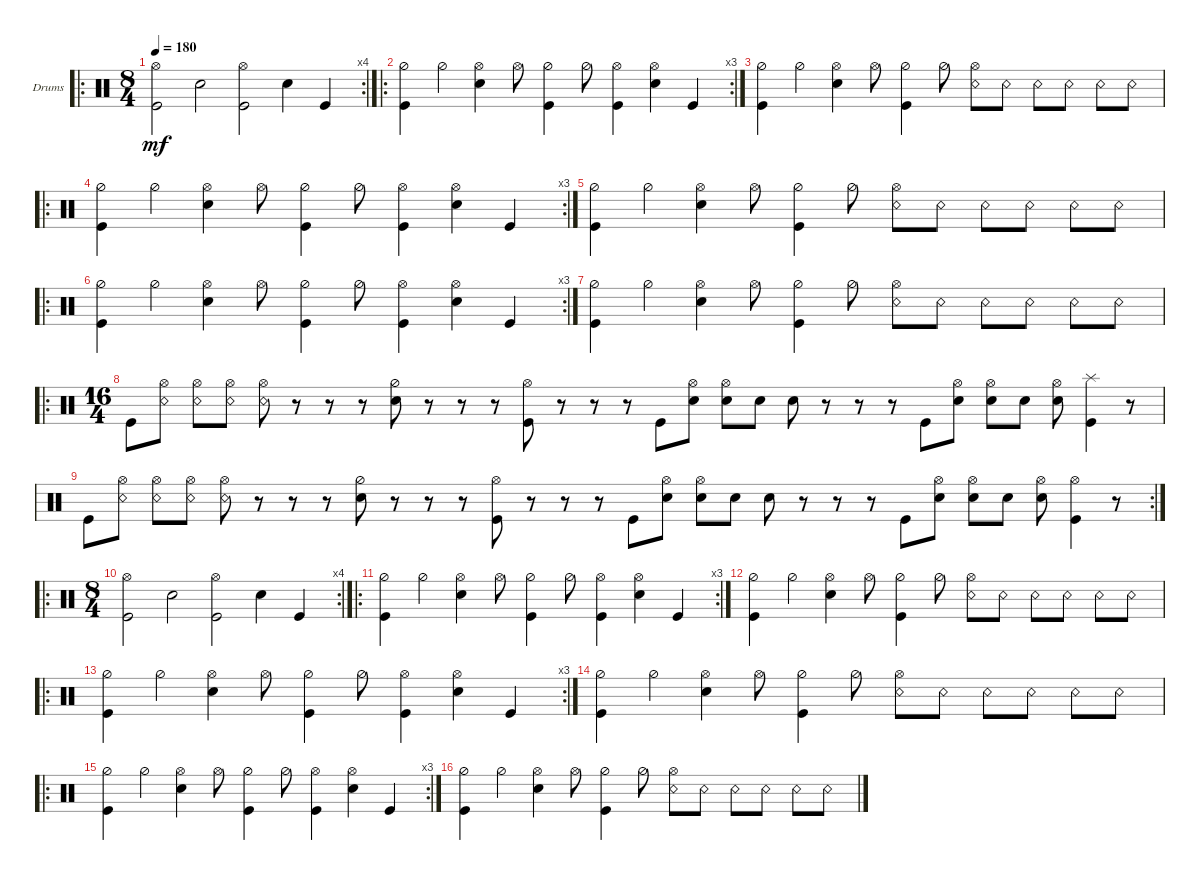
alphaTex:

\bracketExtendMode groupsimilarinstruments
\firstSystemTrackNameOrientation horizontal
\otherSystemsTrackNameOrientation horizontal
\track ("Drumkit" "Drums") {instrument percussion}
\staff {score}
\articulation defaults
\ro
\rc 4
\ts (8 4)
\tempo 180
\clef neutral
\ks c
("Kick (hit)" "Hi-Hat (open)").2{dy mf} "Snare (hit) 2".2 ("Kick (hit)" "Hi-Hat (open)").2 "Snare (hit) 2".4 "Kick (hit)".4 |
\ro
\rc 3
("Hi-Hat (half)" "Kick (hit)").4 "Hi-Hat (half)".4 ("Hi-Hat (open)" "Snare (hit) 2").4 "Hi-Hat (open)".8 ("Hi-Hat (half)" "Kick (hit)").4 "Hi-Hat (half)".8 ("Hi-Hat (open)" "Kick (hit)").4 ("Hi-Hat (open)" "Snare (hit) 2").4 "Kick (hit)".4 |
("Hi-Hat (half)" "Kick (hit)").4 "Hi-Hat (half)".4 ("Hi-Hat (open)" "Snare (hit) 2").4 "Hi-Hat (open)".8 ("Hi-Hat (half)" "Kick (hit)").4 "Hi-Hat (half)".8 ("Hi-Hat (open)" "Snare (rim shot)").8 "Snare (rim shot)".8 "Snare (rim shot)".8 "Snare (rim shot)".8 "Snare (rim shot)".8 "Snare (rim shot)".8 |
\ro
\rc 3
("Hi-Hat (half)" "Kick (hit)").4 "Hi-Hat (half)".4 ("Hi-Hat (open)" "Snare (hit) 2").4 "Hi-Hat (open)".8 ("Hi-Hat (half)" "Kick (hit)").4 "Hi-Hat (half)".8 ("Hi-Hat (open)" "Kick (hit)").4 ("Hi-Hat (open)" "Snare (hit) 2").4 "Kick (hit)".4 |
("Hi-Hat (half)" "Kick (hit)").4 "Hi-Hat (half)".4 ("Hi-Hat (open)" "Snare (hit) 2").4 "Hi-Hat (open)".8 ("Hi-Hat (half)" "Kick (hit)").4 "Hi-Hat (half)".8 ("Hi-Hat (open)" "Snare (rim shot)").8 "Snare (rim shot)".8 "Snare (rim shot)".8 "Snare (rim shot)".8 "Snare (rim shot)".8 "Snare (rim shot)".8 |
\ro
\rc 3
("Hi-Hat (half)" "Kick (hit)").4 "Hi-Hat (half)".4 ("Hi-Hat (open)" "Snare (hit) 2").4 "Hi-Hat (open)".8 ("Hi-Hat (half)" "Kick (hit)").4 "Hi-Hat (half)".8 ("Hi-Hat (open)" "Kick (hit)").4 ("Hi-Hat (open)" "Snare (hit) 2").4 "Kick (hit)".4 |
("Hi-Hat (half)" "Kick (hit)").4 "Hi-Hat (half)".4 ("Hi-Hat (open)" "Snare (hit) 2").4 "Hi-Hat (open)".8 ("Hi-Hat (half)" "Kick (hit)").4 "Hi-Hat (half)".8 ("Hi-Hat (open)" "Snare (rim shot)").8 "Snare (rim shot)".8 "Snare (rim shot)".8 "Snare (rim shot)".8 "Snare (rim shot)".8 "Snare (rim shot)".8 |
\ro
\ts (16 4)
"Kick (hit)".8 ("Snare (rim shot)" "Hi-Hat (open)").8 ("Snare (rim shot)" "Hi-Hat (open)").8 ("Snare (rim shot)" "Hi-Hat (open)").8 ("Snare (rim shot)" "Hi-Hat (open)").8 r.8 r.8 r.8 ("Snare (hit) 2" "Hi-Hat (half)").8 r.8 r.8 r.8 ("Kick (hit)" "Hi-Hat (open)").8 r.8 r.8 r.8 "Kick (hit)".8 ("Snare (hit) 2" "Hi-Hat (open)").8 ("Snare (hit) 2" "Hi-Hat (open)").8 "Snare (hit) 2".8 "Snare (hit) 2".8 r.8 r.8 r.8 "Kick (hit)".8 ("Snare (hit) 2" "Hi-Hat (open)").8 ("Snare (hit) 2" "Hi-Hat (open)").8 "Snare (hit) 2".8 ("Snare (hit) 2" "Hi-Hat (open)").8 ("Kick (hit)" "Splash (hit)").4 r.8 |
\rc 2 "Kick (hit)".8
("Snare (rim shot)" "Hi-Hat (open)").8 ("Snare (rim shot)" "Hi-Hat (open)").8 ("Snare (rim shot)" "Hi-Hat (open)").8 ("Snare (rim shot)" "Hi-Hat (open)").8 r.8 r.8 r.8 ("Snare (hit) 2" "Hi-Hat (half)").8 r.8 r.8 r.8 ("Kick (hit)" "Hi-Hat (open)").8 r.8 r.8 r.8 "Kick (hit)".8 ("Snare (hit) 2" "Hi-Hat (open)").8 ("Snare (hit) 2" "Hi-Hat (open)").8 "Snare (hit) 2".8 "Snare (hit) 2".8 r.8 r.8 r.8 "Kick (hit)".8 ("Snare (hit) 2" "Hi-Hat (open)").8 ("Snare (hit) 2" "Hi-Hat (open)").8 "Snare (hit) 2".8 ("Snare (hit) 2" "Hi-Hat (open)").8 ("Kick (hit)" "Hi-Hat (open)").4 r.8 |
\ro
\rc 4
\ts (8 4)
("Kick (hit)" "Hi-Hat (open)").2 "Snare (hit) 2".2 ("Kick (hit)" "Hi-Hat (open)").2 "Snare (hit) 2".4 "Kick (hit)".4 |
\ro
\rc 3
("Hi-Hat (half)" "Kick (hit)").4 "Hi-Hat (half)".4 ("Hi-Hat (open)" "Snare (hit) 2").4 "Hi-Hat (open)".8 ("Hi-Hat (half)" "Kick (hit)").4 "Hi-Hat (half)".8 ("Hi-Hat (open)" "Kick (hit)").4 ("Hi-Hat (open)" "Snare (hit) 2").4 "Kick (hit)".4 |
("Hi-Hat (half)" "Kick (hit)").4 "Hi-Hat (half)".4 ("Hi-Hat (open)" "Snare (hit) 2").4 "Hi-Hat (open)".8 ("Hi-Hat (half)" "Kick (hit)").4 "Hi-Hat (half)".8 ("Hi-Hat (open)" "Snare (rim shot)").8 "Snare (rim shot)".8 "Snare (rim shot)".8 "Snare (rim shot)".8 "Snare (rim shot)".8 "Snare (rim shot)".8 |
\ro
\rc 3
("Hi-Hat (half)" "Kick (hit)").4 "Hi-Hat (half)".4 ("Hi-Hat (open)" "Snare (hit) 2").4 "Hi-Hat (open)".8 ("Hi-Hat (half)" "Kick (hit)").4 "Hi-Hat (half)".8 ("Hi-Hat (open)" "Kick (hit)").4 ("Hi-Hat (open)" "Snare (hit) 2").4 "Kick (hit)".4 |
("Hi-Hat (half)" "Kick (hit)").4 "Hi-Hat (half)".4 ("Hi-Hat (open)" "Snare (hit) 2").4 "Hi-Hat (open)".8 ("Hi-Hat (half)" "Kick (hit)").4 "Hi-Hat (half)".8 ("Hi-Hat (open)" "Snare (rim shot)").8 "Snare (rim shot)".8 "Snare (rim shot)".8 "Snare (rim shot)".8 "Snare (rim shot)".8 "Snare (rim shot)".8 |
\ro
\rc 3
("Hi-Hat (half)" "Kick (hit)").4 "Hi-Hat (half)".4 ("Hi-Hat (open)" "Snare (hit) 2").4 "Hi-Hat (open)".8 ("Hi-Hat (half)" "Kick (hit)").4 "Hi-Hat (half)".8 ("Hi-Hat (open)" "Kick (hit)").4 ("Hi-Hat (open)" "Snare (hit) 2").4 "Kick (hit)".4 |
("Hi-Hat (half)" "Kick (hit)").4 "Hi-Hat (half)".4 ("Hi-Hat (open)" "Snare (hit) 2").4 "Hi-Hat (open)".8 ("Hi-Hat (half)" "Kick (hit)").4 "Hi-Hat (half)".8 ("Hi-Hat (open)" "Snare (rim shot)").8 "Snare (rim shot)".8 "Snare (rim shot)".8 "Snare (rim shot)".8 "Snare (rim shot)".8 "Snare (rim shot)".8
